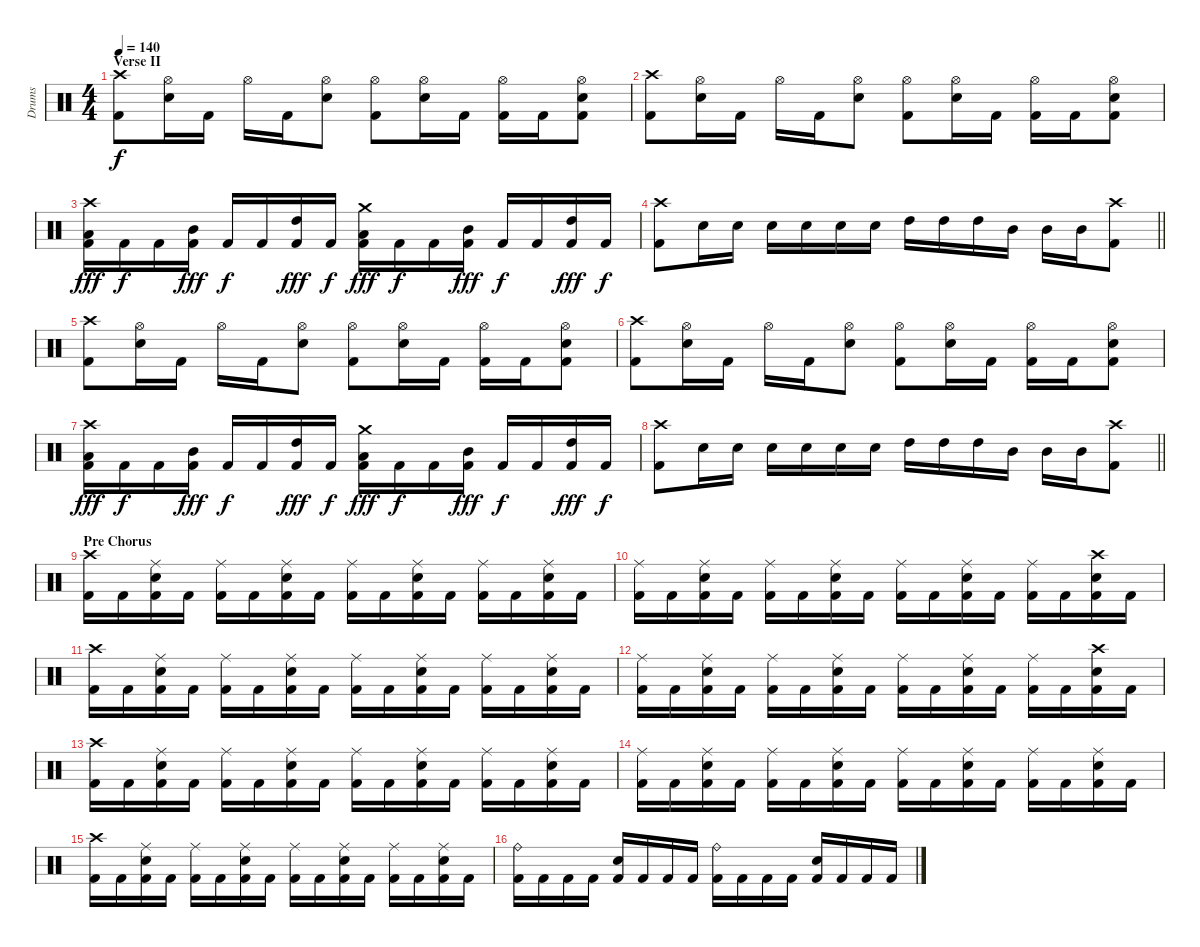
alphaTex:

\track ("Drums" "Drums") {instrument percussion}
\staff {score}
\articulation defaults
\ts (4 4)
\section ("" "Verse II")
\tempo 140
\clef neutral
\ks c
("Crash high (hit)" "Kick (hit) 2").8{dy f} ("Hi-Hat (open)" "Snare (hit) 2").16 "Kick (hit) 2".16 "Hi-Hat (open)".16 "Kick (hit) 2".16 ("Hi-Hat (open)" "Snare (hit) 2").8 ("Hi-Hat (open)" "Kick (hit) 2").8 ("Hi-Hat (open)" "Snare (hit) 2").16 "Kick (hit) 2".16 ("Hi-Hat (open)" "Kick (hit) 2").16 "Kick (hit) 2".16 ("Hi-Hat (open)" "Snare (hit) 2" "Kick (hit) 2").8 |
("Crash high (hit)" "Kick (hit) 2").8 ("Hi-Hat (open)" "Snare (hit) 2").16 "Kick (hit) 2".16 "Hi-Hat (open)".16 "Kick (hit) 2".16 ("Hi-Hat (open)" "Snare (hit) 2").8 ("Hi-Hat (open)" "Kick (hit) 2").8 ("Hi-Hat (open)" "Snare (hit) 2").16 "Kick (hit) 2".16 ("Hi-Hat (open)" "Kick (hit) 2").16 "Kick (hit) 2".16 ("Hi-Hat (open)" "Snare (hit) 2" "Kick (hit) 2").8 |
("Crash high (hit)" "Low Tom (hit)" "Kick (hit) 2").16{dy fff} "Kick (hit) 2".16{dy f} "Kick (hit) 2".16 ("Mid Tom (hit)" "Kick (hit) 2").16{dy fff} "Kick (hit) 2".16{dy f} "Kick (hit) 2".16 ("High Tom (hit)" "Kick (hit) 2").16{dy fff} "Kick (hit) 2".16{dy f} ("Crash medium (hit)" "Low Tom (hit)" "Kick (hit) 2").16{dy fff} "Kick (hit) 2".16{dy f} "Kick (hit) 2".16 ("Mid Tom (hit)" "Kick (hit) 2").16{dy fff} "Kick (hit) 2".16{dy f} "Kick (hit) 2".16 ("High Tom (hit)" "Kick (hit) 2").16{dy fff} "Kick (hit) 2".16{dy f} |
\barLineRight lightlight
("Crash high (hit)" "Kick (hit) 2").8 "Snare (hit) 2".16 "Snare (hit) 2".16 "Snare (hit) 2".16 "Snare (hit) 2".16 "Snare (hit) 2".16 "Snare (hit) 2".16 "High Tom (hit)".16 "High Tom (hit)".16 "High Tom (hit)".16 "Mid Tom (hit)".16 "Mid Tom (hit)".16 "Mid Tom (hit)".16 ("Crash high (hit)" "Kick (hit) 2").8 |
("Crash high (hit)" "Kick (hit) 2").8 ("Hi-Hat (open)" "Snare (hit) 2").16 "Kick (hit) 2".16 "Hi-Hat (open)".16 "Kick (hit) 2".16 ("Hi-Hat (open)" "Snare (hit) 2").8 ("Hi-Hat (open)" "Kick (hit) 2").8 ("Hi-Hat (open)" "Snare (hit) 2").16 "Kick (hit) 2".16 ("Hi-Hat (open)" "Kick (hit) 2").16 "Kick (hit) 2".16 ("Hi-Hat (open)" "Snare (hit) 2" "Kick (hit) 2").8 |
("Crash high (hit)" "Kick (hit) 2").8 ("Hi-Hat (open)" "Snare (hit) 2").16 "Kick (hit) 2".16 "Hi-Hat (open)".16 "Kick (hit) 2".16 ("Hi-Hat (open)" "Snare (hit) 2").8 ("Hi-Hat (open)" "Kick (hit) 2").8 ("Hi-Hat (open)" "Snare (hit) 2").16 "Kick (hit) 2".16 ("Hi-Hat (open)" "Kick (hit) 2").16 "Kick (hit) 2".16 ("Hi-Hat (open)" "Snare (hit) 2" "Kick (hit) 2").8 |
("Crash high (hit)" "Low Tom (hit)" "Kick (hit) 2").16{dy fff} "Kick (hit) 2".16{dy f} "Kick (hit) 2".16 ("Mid Tom (hit)" "Kick (hit) 2").16{dy fff} "Kick (hit) 2".16{dy f} "Kick (hit) 2".16 ("High Tom (hit)" "Kick (hit) 2").16{dy fff} "Kick (hit) 2".16{dy f} ("Crash medium (hit)" "Low Tom (hit)" "Kick (hit) 2").16{dy fff} "Kick (hit) 2".16{dy f} "Kick (hit) 2".16 ("Mid Tom (hit)" "Kick (hit) 2").16{dy fff} "Kick (hit) 2".16{dy f} "Kick (hit) 2".16 ("High Tom (hit)" "Kick (hit) 2").16{dy fff} "Kick (hit) 2".16{dy f} |
\barLineRight lightlight
("Crash high (hit)" "Kick (hit) 2").8 "Snare (hit) 2".16 "Snare (hit) 2".16 "Snare (hit) 2".16 "Snare (hit) 2".16 "Snare (hit) 2".16 "Snare (hit) 2".16 "High Tom (hit)".16 "High Tom (hit)".16 "High Tom (hit)".16 "Mid Tom (hit)".16 "Mid Tom (hit)".16 "Mid Tom (hit)".16 ("Crash high (hit)" "Kick (hit) 2").8 |
\section ("" "Pre Chorus")
("Crash high (hit)" "Kick (hit) 2").16 "Kick (hit) 2".16 ("Snare (hit) 2" "Ride (middle)" "Kick (hit) 2").16 "Kick (hit) 2".16 ("Ride (middle)" "Kick (hit) 2").16 "Kick (hit) 2".16 ("Snare (hit) 2" "Ride (middle)" "Kick (hit) 2").16 "Kick (hit) 2".16 ("Ride (middle)" "Kick (hit) 2").16 "Kick (hit) 2".16 ("Snare (hit) 2" "Ride (middle)" "Kick (hit) 2").16 "Kick (hit) 2".16 ("Ride (middle)" "Kick (hit) 2").16 "Kick (hit) 2".16 ("Snare (hit) 2" "Ride (middle)" "Kick (hit) 2").16 "Kick (hit) 2".16 |
("Ride (middle)" "Kick (hit) 2").16 "Kick (hit) 2".16 ("Snare (hit) 2" "Ride (middle)" "Kick (hit) 2").16 "Kick (hit) 2".16 ("Ride (middle)" "Kick (hit) 2").16 "Kick (hit) 2".16 ("Snare (hit) 2" "Ride (middle)" "Kick (hit) 2").16 "Kick (hit) 2".16 ("Ride (middle)" "Kick (hit) 2").16 "Kick (hit) 2".16 ("Snare (hit) 2" "Ride (middle)" "Kick (hit) 2").16 "Kick (hit) 2".16 ("Ride (middle)" "Kick (hit) 2").16 "Kick (hit) 2".16 ("Snare (hit) 2" "Crash high (hit)" "Kick (hit) 2").16 "Kick (hit) 2".16 |
("Crash high (hit)" "Kick (hit) 2").16 "Kick (hit) 2".16 ("Snare (hit) 2" "Ride (middle)" "Kick (hit) 2").16 "Kick (hit) 2".16 ("Ride (middle)" "Kick (hit) 2").16 "Kick (hit) 2".16 ("Snare (hit) 2" "Ride (middle)" "Kick (hit) 2").16 "Kick (hit) 2".16 ("Ride (middle)" "Kick (hit) 2").16 "Kick (hit) 2".16 ("Snare (hit) 2" "Ride (middle)" "Kick (hit) 2").16 "Kick (hit) 2".16 ("Ride (middle)" "Kick (hit) 2").16 "Kick (hit) 2".16 ("Snare (hit) 2" "Ride (middle)" "Kick (hit) 2").16 "Kick (hit) 2".16 |
("Ride (middle)" "Kick (hit) 2").16 "Kick (hit) 2".16 ("Snare (hit) 2" "Ride (middle)" "Kick (hit) 2").16 "Kick (hit) 2".16 ("Ride (middle)" "Kick (hit) 2").16 "Kick (hit) 2".16 ("Snare (hit) 2" "Ride (middle)" "Kick (hit) 2").16 "Kick (hit) 2".16 ("Ride (middle)" "Kick (hit) 2").16 "Kick (hit) 2".16 ("Snare (hit) 2" "Ride (middle)" "Kick (hit) 2").16 "Kick (hit) 2".16 ("Ride (middle)" "Kick (hit) 2").16 "Kick (hit) 2".16 ("Snare (hit) 2" "Crash high (hit)" "Kick (hit) 2").16 "Kick (hit) 2".16 |
("Crash high (hit)" "Kick (hit) 2").16 "Kick (hit) 2".16 ("Snare (hit) 2" "Ride (middle)" "Kick (hit) 2").16 "Kick (hit) 2".16 ("Ride (middle)" "Kick (hit) 2").16 "Kick (hit) 2".16 ("Snare (hit) 2" "Ride (middle)" "Kick (hit) 2").16 "Kick (hit) 2".16 ("Ride (middle)" "Kick (hit) 2").16 "Kick (hit) 2".16 ("Snare (hit) 2" "Ride (middle)" "Kick (hit) 2").16 "Kick (hit) 2".16 ("Ride (middle)" "Kick (hit) 2").16 "Kick (hit) 2".16 ("Snare (hit) 2" "Ride (middle)" "Kick (hit) 2").16 "Kick (hit) 2".16 |
("Ride (middle)" "Kick (hit) 2").16 "Kick (hit) 2".16 ("Snare (hit) 2" "Ride (middle)" "Kick (hit) 2").16 "Kick (hit) 2".16 ("Ride (middle)" "Kick (hit) 2").16 "Kick (hit) 2".16 ("Snare (hit) 2" "Ride (middle)" "Kick (hit) 2").16 "Kick (hit) 2".16 ("Ride (middle)" "Kick (hit) 2").16 "Kick (hit) 2".16 ("Snare (hit) 2" "Ride (middle)" "Kick (hit) 2").16 "Kick (hit) 2".16 ("Ride (middle)" "Kick (hit) 2").16 "Kick (hit) 2".16 ("Snare (hit) 2" "Ride (middle)" "Kick (hit) 2").16 "Kick (hit) 2".16 |
("Crash high (hit)" "Kick (hit) 2").16 "Kick (hit) 2".16 ("Snare (hit) 2" "Ride (middle)" "Kick (hit) 2").16 "Kick (hit) 2".16 ("Ride (middle)" "Kick (hit) 2").16 "Kick (hit) 2".16 ("Snare (hit) 2" "Ride (middle)" "Kick (hit) 2").16 "Kick (hit) 2".16 ("Ride (middle)" "Kick (hit) 2").16 "Kick (hit) 2".16 ("Snare (hit) 2" "Ride (middle)" "Kick (hit) 2").16 "Kick (hit) 2".16 ("Ride (middle)" "Kick (hit) 2").16 "Kick (hit) 2".16 ("Snare (hit) 2" "Ride (middle)" "Kick (hit) 2").16 "Kick (hit) 2".16 |
("Ride (bell)" "Kick (hit) 2").16 "Kick (hit) 2".16 "Kick (hit) 2".16 "Kick (hit) 2".16 ("Snare (hit) 2" "Kick (hit) 2").16 "Kick (hit) 2".16 "Kick (hit) 2".16 "Kick (hit) 2".16 ("Ride (bell)" "Kick (hit) 2").16 "Kick (hit) 2".16 "Kick (hit) 2".16 "Kick (hit) 2".16 ("Snare (hit) 2" "Kick (hit) 2").16 "Kick (hit) 2".16 "Kick (hit) 2".16 "Kick (hit) 2".16
